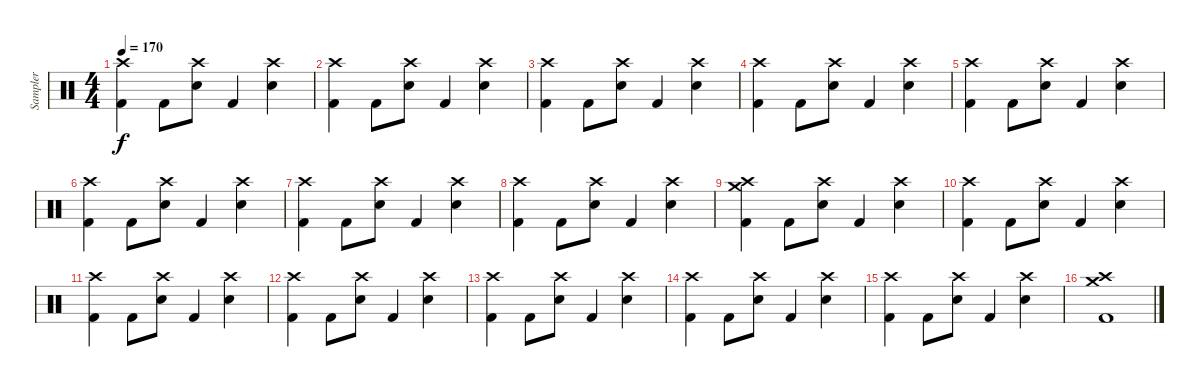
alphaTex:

\track ("Sampler" "Sampler") {instrument percussion}
\staff {score}
\articulation defaults
\ts (4 4)
\tempo 170
\clef neutral
\ks c
("Crash high (hit)" "Kick (hit) 2").4{dy f} "Kick (hit) 2".8 ("Crash high (hit)" "Snare (hit) 2").8 "Kick (hit) 2".4 ("Crash high (hit)" "Snare (hit) 2").4 |
("Crash high (hit)" "Kick (hit) 2").4 "Kick (hit) 2".8 ("Crash high (hit)" "Snare (hit) 2").8 "Kick (hit) 2".4 ("Crash high (hit)" "Snare (hit) 2").4 |
("Crash high (hit)" "Kick (hit) 2").4 "Kick (hit) 2".8 ("Crash high (hit)" "Snare (hit) 2").8 "Kick (hit) 2".4 ("Crash high (hit)" "Snare (hit) 2").4 |
("Crash high (hit)" "Kick (hit) 2").4 "Kick (hit) 2".8 ("Crash high (hit)" "Snare (hit) 2").8 "Kick (hit) 2".4 ("Crash high (hit)" "Snare (hit) 2").4 |
("Crash high (hit)" "Kick (hit) 2").4 "Kick (hit) 2".8 ("Crash high (hit)" "Snare (hit) 2").8 "Kick (hit) 2".4 ("Crash high (hit)" "Snare (hit) 2").4 |
("Crash high (hit)" "Kick (hit) 2").4 "Kick (hit) 2".8 ("Crash high (hit)" "Snare (hit) 2").8 "Kick (hit) 2".4 ("Crash high (hit)" "Snare (hit) 2").4 |
("Crash high (hit)" "Kick (hit) 2").4 "Kick (hit) 2".8 ("Crash high (hit)" "Snare (hit) 2").8 "Kick (hit) 2".4 ("Crash high (hit)" "Snare (hit) 2").4 |
("Crash high (hit)" "Kick (hit) 2").4 "Kick (hit) 2".8 ("Crash high (hit)" "Snare (hit) 2").8 "Kick (hit) 2".4 ("Crash high (hit)" "Snare (hit) 2").4 |
("Crash high (hit)" "Crash medium (hit)" "Kick (hit) 2").4 "Kick (hit) 2".8 ("Crash high (hit)" "Snare (hit) 2").8 "Kick (hit) 2".4 ("Crash high (hit)" "Snare (hit) 2").4 |
("Crash high (hit)" "Kick (hit) 2").4 "Kick (hit) 2".8 ("Crash high (hit)" "Snare (hit) 2").8 "Kick (hit) 2".4 ("Crash high (hit)" "Snare (hit) 2").4 |
("Crash high (hit)" "Kick (hit) 2").4 "Kick (hit) 2".8 ("Crash high (hit)" "Snare (hit) 2").8 "Kick (hit) 2".4 ("Crash high (hit)" "Snare (hit) 2").4 |
("Crash high (hit)" "Kick (hit) 2").4 "Kick (hit) 2".8 ("Crash high (hit)" "Snare (hit) 2").8 "Kick (hit) 2".4 ("Crash high (hit)" "Snare (hit) 2").4 |
("Crash high (hit)" "Kick (hit) 2").4 "Kick (hit) 2".8 ("Crash high (hit)" "Snare (hit) 2").8 "Kick (hit) 2".4 ("Crash high (hit)" "Snare (hit) 2").4 |
("Crash high (hit)" "Kick (hit) 2").4 "Kick (hit) 2".8 ("Crash high (hit)" "Snare (hit) 2").8 "Kick (hit) 2".4 ("Crash high (hit)" "Snare (hit) 2").4 |
("Crash high (hit)" "Kick (hit) 2").4 "Kick (hit) 2".8 ("Crash high (hit)" "Snare (hit) 2").8 "Kick (hit) 2".4 ("Crash high (hit)" "Snare (hit) 2").4 |
("Crash high (hit)" "Crash medium (hit)" "Kick (hit) 2").1
